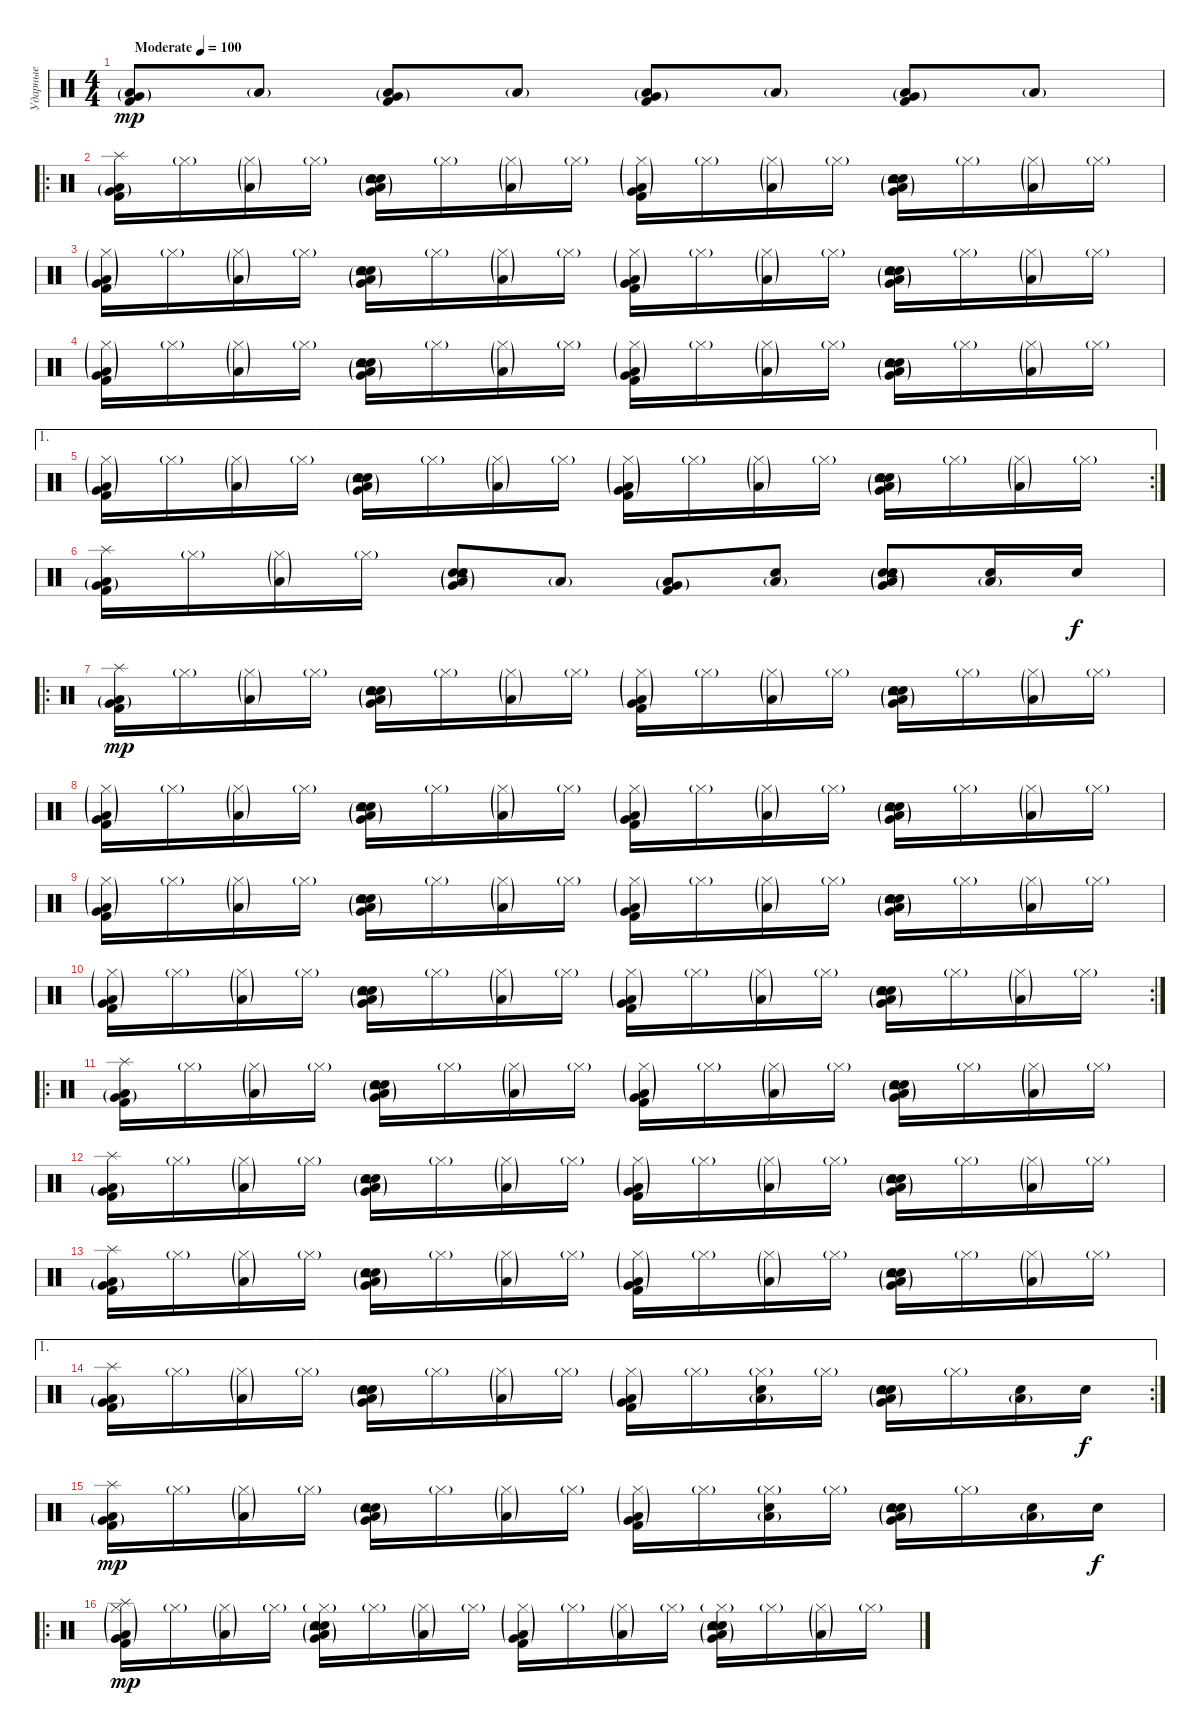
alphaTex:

\track ("Ударные" "Ударные") {instrument percussion}
\staff {score}
\articulation defaults
\ts (4 4)
\tempo (100 "Moderate")
\clef neutral
\ks c
("Kick (hit) 2" "Very Low Tom (hit)"{g} "Low Floor Tom (hit)"{g}).8{dy mp} "Low Floor Tom (hit)"{g}.8 ("Kick (hit) 2" "Very Low Tom (hit)"{g} "Low Floor Tom (hit)"{g}).8 "Low Floor Tom (hit)"{g}.8 ("Kick (hit) 2" "Very Low Tom (hit)"{g} "Low Floor Tom (hit)"{g}).8 "Low Floor Tom (hit)"{g}.8 ("Kick (hit) 2" "Very Low Tom (hit)"{g} "Low Floor Tom (hit)"{g}).8 "Low Floor Tom (hit)"{g}.8 |
\ro
("Splash (hit)" "Kick (hit) 2" "Very Low Tom (hit)"{g} "Low Floor Tom (hit)"{g}).16 "Hi-Hat (closed)"{g}.16 ("Low Floor Tom (hit)"{g} "Hi-Hat (closed)"{g}).16 "Hi-Hat (closed)"{g}.16 ("Hand Clap (hit)" "Snare (hit) 2" "Very Low Tom (hit)"{g} "Tambourine (hit)"{g} "Low Floor Tom (hit)"{g}).16 "Hi-Hat (closed)"{g}.16 ("Low Floor Tom (hit)"{g} "Hi-Hat (closed)"{g}).16 "Hi-Hat (closed)"{g}.16 ("Kick (hit) 2" "Very Low Tom (hit)"{g} "Hi-Hat (closed)"{g} "Low Floor Tom (hit)"{g}).16 "Hi-Hat (closed)"{g}.16 ("Low Floor Tom (hit)"{g} "Hi-Hat (closed)"{g}).16 "Hi-Hat (closed)"{g}.16 ("Hand Clap (hit)" "Snare (hit) 2" "Very Low Tom (hit)"{g} "Tambourine (hit)"{g} "Low Floor Tom (hit)"{g}).16 "Hi-Hat (closed)"{g}.16 ("Low Floor Tom (hit)"{g} "Hi-Hat (closed)"{g}).16 "Hi-Hat (closed)"{g}.16 |
("Kick (hit) 2" "Very Low Tom (hit)"{g} "Hi-Hat (closed)"{g} "Low Floor Tom (hit)"{g}).16 "Hi-Hat (closed)"{g}.16 ("Low Floor Tom (hit)"{g} "Hi-Hat (closed)"{g}).16 "Hi-Hat (closed)"{g}.16 ("Hand Clap (hit)" "Snare (hit) 2" "Very Low Tom (hit)"{g} "Tambourine (hit)"{g} "Low Floor Tom (hit)"{g}).16 "Hi-Hat (closed)"{g}.16 ("Low Floor Tom (hit)"{g} "Hi-Hat (closed)"{g}).16 "Hi-Hat (closed)"{g}.16 ("Kick (hit) 2" "Very Low Tom (hit)"{g} "Hi-Hat (closed)"{g} "Low Floor Tom (hit)"{g}).16 "Hi-Hat (closed)"{g}.16 ("Low Floor Tom (hit)"{g} "Hi-Hat (closed)"{g}).16 "Hi-Hat (closed)"{g}.16 ("Hand Clap (hit)" "Snare (hit) 2" "Very Low Tom (hit)"{g} "Tambourine (hit)"{g} "Low Floor Tom (hit)"{g}).16 "Hi-Hat (closed)"{g}.16 ("Low Floor Tom (hit)"{g} "Hi-Hat (closed)"{g}).16 "Hi-Hat (closed)"{g}.16 |
("Kick (hit) 2" "Very Low Tom (hit)"{g} "Hi-Hat (closed)"{g} "Low Floor Tom (hit)"{g}).16 "Hi-Hat (closed)"{g}.16 ("Low Floor Tom (hit)"{g} "Hi-Hat (closed)"{g}).16 "Hi-Hat (closed)"{g}.16 ("Hand Clap (hit)" "Snare (hit) 2" "Very Low Tom (hit)"{g} "Tambourine (hit)"{g} "Low Floor Tom (hit)"{g}).16 "Hi-Hat (closed)"{g}.16 ("Low Floor Tom (hit)"{g} "Hi-Hat (closed)"{g}).16 "Hi-Hat (closed)"{g}.16 ("Kick (hit) 2" "Very Low Tom (hit)"{g} "Hi-Hat (closed)"{g} "Low Floor Tom (hit)"{g}).16 "Hi-Hat (closed)"{g}.16 ("Low Floor Tom (hit)"{g} "Hi-Hat (closed)"{g}).16 "Hi-Hat (closed)"{g}.16 ("Hand Clap (hit)" "Snare (hit) 2" "Very Low Tom (hit)"{g} "Tambourine (hit)"{g} "Low Floor Tom (hit)"{g}).16 "Hi-Hat (closed)"{g}.16 ("Low Floor Tom (hit)"{g} "Hi-Hat (closed)"{g}).16 "Hi-Hat (closed)"{g}.16 |
\ae 1
\rc 2
("Kick (hit) 2" "Very Low Tom (hit)"{g} "Hi-Hat (closed)"{g} "Low Floor Tom (hit)"{g}).16 "Hi-Hat (closed)"{g}.16 ("Low Floor Tom (hit)"{g} "Hi-Hat (closed)"{g}).16 "Hi-Hat (closed)"{g}.16 ("Hand Clap (hit)" "Snare (hit) 2" "Very Low Tom (hit)"{g} "Tambourine (hit)"{g} "Low Floor Tom (hit)"{g}).16 "Hi-Hat (closed)"{g}.16 ("Low Floor Tom (hit)"{g} "Hi-Hat (closed)"{g}).16 "Hi-Hat (closed)"{g}.16 ("Kick (hit) 2" "Very Low Tom (hit)"{g} "Hi-Hat (closed)"{g} "Low Floor Tom (hit)"{g}).16 "Hi-Hat (closed)"{g}.16 ("Low Floor Tom (hit)"{g} "Hi-Hat (closed)"{g}).16 "Hi-Hat (closed)"{g}.16 ("Hand Clap (hit)" "Snare (hit) 2" "Very Low Tom (hit)"{g} "Tambourine (hit)"{g} "Low Floor Tom (hit)"{g}).16 "Hi-Hat (closed)"{g}.16 ("Low Floor Tom (hit)"{g} "Hi-Hat (closed)"{g}).16 "Hi-Hat (closed)"{g}.16 |
("Splash (hit)" "Kick (hit) 2" "Very Low Tom (hit)"{g} "Low Floor Tom (hit)"{g}).16 "Hi-Hat (closed)"{g}.16 ("Low Floor Tom (hit)"{g} "Hi-Hat (closed)"{g}).16 "Hi-Hat (closed)"{g}.16 ("Hand Clap (hit)" "Snare (hit) 2" "Very Low Tom (hit)"{g} "Tambourine (hit)"{g} "Low Floor Tom (hit)"{g}).8 "Low Floor Tom (hit)"{g}.8 ("Kick (hit) 2" "Very Low Tom (hit)"{g} "Low Floor Tom (hit)"{g}).8 ("Hand Clap (hit)" "Low Floor Tom (hit)"{g}).8 ("Hand Clap (hit)" "Snare (hit) 2" "Very Low Tom (hit)"{g} "Tambourine (hit)"{g} "Low Floor Tom (hit)"{g}).8 ("Low Floor Tom (hit)"{g} "Snare (hit) 2").16 "Snare (hit) 2".16{dy f} |
\ro
("Splash (hit)" "Kick (hit) 2" "Very Low Tom (hit)"{g} "Low Floor Tom (hit)"{g}).16{dy mp} "Hi-Hat (closed)"{g}.16 ("Low Floor Tom (hit)"{g} "Hi-Hat (closed)"{g}).16 "Hi-Hat (closed)"{g}.16 ("Hand Clap (hit)" "Snare (hit) 2" "Very Low Tom (hit)"{g} "Tambourine (hit)"{g} "Low Floor Tom (hit)"{g}).16 "Hi-Hat (closed)"{g}.16 ("Low Floor Tom (hit)"{g} "Hi-Hat (closed)"{g}).16 "Hi-Hat (closed)"{g}.16 ("Kick (hit) 2" "Very Low Tom (hit)"{g} "Hi-Hat (closed)"{g} "Low Floor Tom (hit)"{g}).16 "Hi-Hat (closed)"{g}.16 ("Low Floor Tom (hit)"{g} "Hi-Hat (closed)"{g}).16 "Hi-Hat (closed)"{g}.16 ("Hand Clap (hit)" "Snare (hit) 2" "Very Low Tom (hit)"{g} "Tambourine (hit)"{g} "Low Floor Tom (hit)"{g}).16 "Hi-Hat (closed)"{g}.16 ("Low Floor Tom (hit)"{g} "Hi-Hat (closed)"{g}).16 "Hi-Hat (closed)"{g}.16 |
("Kick (hit) 2" "Very Low Tom (hit)"{g} "Hi-Hat (closed)"{g} "Low Floor Tom (hit)"{g}).16 "Hi-Hat (closed)"{g}.16 ("Low Floor Tom (hit)"{g} "Hi-Hat (closed)"{g}).16 "Hi-Hat (closed)"{g}.16 ("Hand Clap (hit)" "Snare (hit) 2" "Very Low Tom (hit)"{g} "Tambourine (hit)"{g} "Low Floor Tom (hit)"{g}).16 "Hi-Hat (closed)"{g}.16 ("Low Floor Tom (hit)"{g} "Hi-Hat (closed)"{g}).16 "Hi-Hat (closed)"{g}.16 ("Kick (hit) 2" "Very Low Tom (hit)"{g} "Hi-Hat (closed)"{g} "Low Floor Tom (hit)"{g}).16 "Hi-Hat (closed)"{g}.16 ("Low Floor Tom (hit)"{g} "Hi-Hat (closed)"{g}).16 "Hi-Hat (closed)"{g}.16 ("Hand Clap (hit)" "Snare (hit) 2" "Very Low Tom (hit)"{g} "Tambourine (hit)"{g} "Low Floor Tom (hit)"{g}).16 "Hi-Hat (closed)"{g}.16 ("Low Floor Tom (hit)"{g} "Hi-Hat (closed)"{g}).16 "Hi-Hat (closed)"{g}.16 |
("Kick (hit) 2" "Very Low Tom (hit)"{g} "Hi-Hat (closed)"{g} "Low Floor Tom (hit)"{g}).16 "Hi-Hat (closed)"{g}.16 ("Low Floor Tom (hit)"{g} "Hi-Hat (closed)"{g}).16 "Hi-Hat (closed)"{g}.16 ("Hand Clap (hit)" "Snare (hit) 2" "Very Low Tom (hit)"{g} "Tambourine (hit)"{g} "Low Floor Tom (hit)"{g}).16 "Hi-Hat (closed)"{g}.16 ("Low Floor Tom (hit)"{g} "Hi-Hat (closed)"{g}).16 "Hi-Hat (closed)"{g}.16 ("Kick (hit) 2" "Very Low Tom (hit)"{g} "Hi-Hat (closed)"{g} "Low Floor Tom (hit)"{g}).16 "Hi-Hat (closed)"{g}.16 ("Low Floor Tom (hit)"{g} "Hi-Hat (closed)"{g}).16 "Hi-Hat (closed)"{g}.16 ("Hand Clap (hit)" "Snare (hit) 2" "Very Low Tom (hit)"{g} "Tambourine (hit)"{g} "Low Floor Tom (hit)"{g}).16 "Hi-Hat (closed)"{g}.16 ("Low Floor Tom (hit)"{g} "Hi-Hat (closed)"{g}).16 "Hi-Hat (closed)"{g}.16 |
\rc 2
("Kick (hit) 2" "Very Low Tom (hit)"{g} "Hi-Hat (closed)"{g} "Low Floor Tom (hit)"{g}).16 "Hi-Hat (closed)"{g}.16 ("Low Floor Tom (hit)"{g} "Hi-Hat (closed)"{g}).16 "Hi-Hat (closed)"{g}.16 ("Hand Clap (hit)" "Snare (hit) 2" "Very Low Tom (hit)"{g} "Tambourine (hit)"{g} "Low Floor Tom (hit)"{g}).16 "Hi-Hat (closed)"{g}.16 ("Low Floor Tom (hit)"{g} "Hi-Hat (closed)"{g}).16 "Hi-Hat (closed)"{g}.16 ("Kick (hit) 2" "Very Low Tom (hit)"{g} "Hi-Hat (closed)"{g} "Low Floor Tom (hit)"{g}).16 "Hi-Hat (closed)"{g}.16 ("Low Floor Tom (hit)"{g} "Hi-Hat (closed)"{g}).16 "Hi-Hat (closed)"{g}.16 ("Hand Clap (hit)" "Snare (hit) 2" "Very Low Tom (hit)"{g} "Tambourine (hit)"{g} "Low Floor Tom (hit)"{g}).16 "Hi-Hat (closed)"{g}.16 ("Low Floor Tom (hit)"{g} "Hi-Hat (closed)"{g}).16 "Hi-Hat (closed)"{g}.16 |
\ro
("Splash (hit)" "Kick (hit) 2" "Very Low Tom (hit)"{g} "Low Floor Tom (hit)"{g}).16 "Hi-Hat (closed)"{g}.16 ("Low Floor Tom (hit)"{g} "Hi-Hat (closed)"{g}).16 "Hi-Hat (closed)"{g}.16 ("Hand Clap (hit)" "Snare (hit) 2" "Very Low Tom (hit)"{g} "Tambourine (hit)"{g} "Low Floor Tom (hit)"{g}).16 "Hi-Hat (closed)"{g}.16 ("Low Floor Tom (hit)"{g} "Hi-Hat (closed)"{g}).16 "Hi-Hat (closed)"{g}.16 ("Kick (hit) 2" "Very Low Tom (hit)"{g} "Hi-Hat (closed)"{g} "Low Floor Tom (hit)"{g}).16 "Hi-Hat (closed)"{g}.16 ("Low Floor Tom (hit)"{g} "Hi-Hat (closed)"{g}).16 "Hi-Hat (closed)"{g}.16 ("Hand Clap (hit)" "Snare (hit) 2" "Very Low Tom (hit)"{g} "Tambourine (hit)"{g} "Low Floor Tom (hit)"{g}).16 "Hi-Hat (closed)"{g}.16 ("Low Floor Tom (hit)"{g} "Hi-Hat (closed)"{g}).16 "Hi-Hat (closed)"{g}.16 |
("Splash (hit)" "Kick (hit) 2" "Very Low Tom (hit)"{g} "Low Floor Tom (hit)"{g}).16 "Hi-Hat (closed)"{g}.16 ("Low Floor Tom (hit)"{g} "Hi-Hat (closed)"{g}).16 "Hi-Hat (closed)"{g}.16 ("Hand Clap (hit)" "Snare (hit) 2" "Very Low Tom (hit)"{g} "Tambourine (hit)"{g} "Low Floor Tom (hit)"{g}).16 "Hi-Hat (closed)"{g}.16 ("Low Floor Tom (hit)"{g} "Hi-Hat (closed)"{g}).16 "Hi-Hat (closed)"{g}.16 ("Kick (hit) 2" "Very Low Tom (hit)"{g} "Hi-Hat (closed)"{g} "Low Floor Tom (hit)"{g}).16 "Hi-Hat (closed)"{g}.16 ("Low Floor Tom (hit)"{g} "Hi-Hat (closed)"{g}).16 "Hi-Hat (closed)"{g}.16 ("Hand Clap (hit)" "Snare (hit) 2" "Very Low Tom (hit)"{g} "Tambourine (hit)"{g} "Low Floor Tom (hit)"{g}).16 "Hi-Hat (closed)"{g}.16 ("Low Floor Tom (hit)"{g} "Hi-Hat (closed)"{g}).16 "Hi-Hat (closed)"{g}.16 |
("Splash (hit)" "Kick (hit) 2" "Very Low Tom (hit)"{g} "Low Floor Tom (hit)"{g}).16 "Hi-Hat (closed)"{g}.16 ("Low Floor Tom (hit)"{g} "Hi-Hat (closed)"{g}).16 "Hi-Hat (closed)"{g}.16 ("Hand Clap (hit)" "Snare (hit) 2" "Very Low Tom (hit)"{g} "Tambourine (hit)"{g} "Low Floor Tom (hit)"{g}).16 "Hi-Hat (closed)"{g}.16 ("Low Floor Tom (hit)"{g} "Hi-Hat (closed)"{g}).16 "Hi-Hat (closed)"{g}.16 ("Kick (hit) 2" "Very Low Tom (hit)"{g} "Hi-Hat (closed)"{g} "Low Floor Tom (hit)"{g}).16 "Hi-Hat (closed)"{g}.16 ("Low Floor Tom (hit)"{g} "Hi-Hat (closed)"{g}).16 "Hi-Hat (closed)"{g}.16 ("Hand Clap (hit)" "Snare (hit) 2" "Very Low Tom (hit)"{g} "Tambourine (hit)"{g} "Low Floor Tom (hit)"{g}).16 "Hi-Hat (closed)"{g}.16 ("Low Floor Tom (hit)"{g} "Hi-Hat (closed)"{g}).16 "Hi-Hat (closed)"{g}.16 |
\ae 1
\rc 2
("Splash (hit)" "Kick (hit) 2" "Very Low Tom (hit)"{g} "Low Floor Tom (hit)"{g}).16 "Hi-Hat (closed)"{g}.16 ("Low Floor Tom (hit)"{g} "Hi-Hat (closed)"{g}).16 "Hi-Hat (closed)"{g}.16 ("Hand Clap (hit)" "Snare (hit) 2" "Very Low Tom (hit)"{g} "Tambourine (hit)"{g} "Low Floor Tom (hit)"{g}).16 "Hi-Hat (closed)"{g}.16 ("Low Floor Tom (hit)"{g} "Hi-Hat (closed)"{g}).16 "Hi-Hat (closed)"{g}.16 ("Kick (hit) 2" "Very Low Tom (hit)"{g} "Hi-Hat (closed)"{g} "Low Floor Tom (hit)"{g}).16 "Hi-Hat (closed)"{g}.16 ("Hand Clap (hit)" "Low Floor Tom (hit)"{g} "Hi-Hat (closed)"{g}).16 "Hi-Hat (closed)"{g}.16 ("Hand Clap (hit)" "Snare (hit) 2" "Very Low Tom (hit)"{g} "Tambourine (hit)"{g} "Low Floor Tom (hit)"{g}).16 "Hi-Hat (closed)"{g}.16 ("Snare (hit) 2" "Low Floor Tom (hit)"{g}).16 "Snare (hit) 2".16{dy f} |
("Splash (hit)" "Kick (hit) 2" "Very Low Tom (hit)"{g} "Low Floor Tom (hit)"{g}).16{dy mp} "Hi-Hat (closed)"{g}.16 ("Low Floor Tom (hit)"{g} "Hi-Hat (closed)"{g}).16 "Hi-Hat (closed)"{g}.16 ("Hand Clap (hit)" "Snare (hit) 2" "Very Low Tom (hit)"{g} "Tambourine (hit)"{g} "Low Floor Tom (hit)"{g}).16 "Hi-Hat (closed)"{g}.16 ("Low Floor Tom (hit)"{g} "Hi-Hat (closed)"{g}).16 "Hi-Hat (closed)"{g}.16 ("Kick (hit) 2" "Very Low Tom (hit)"{g} "Hi-Hat (closed)"{g} "Low Floor Tom (hit)"{g}).16 "Hi-Hat (closed)"{g}.16 ("Hand Clap (hit)" "Low Floor Tom (hit)"{g} "Hi-Hat (closed)"{g}).16 "Hi-Hat (closed)"{g}.16 ("Hand Clap (hit)" "Snare (hit) 2" "Very Low Tom (hit)"{g} "Tambourine (hit)"{g} "Low Floor Tom (hit)"{g}).16 "Hi-Hat (closed)"{g}.16 ("Snare (hit) 2" "Low Floor Tom (hit)"{g}).16 "Snare (hit) 2".16{dy f} |
\ro
("Splash (hit)" "Kick (hit) 2" "Very Low Tom (hit)"{g} "Hi-Hat (closed)"{g} "Low Floor Tom (hit)"{g}).16{dy mp} "Hi-Hat (closed)"{g}.16 ("Low Floor Tom (hit)"{g} "Hi-Hat (closed)"{g}).16 "Hi-Hat (closed)"{g}.16 ("Hand Clap (hit)" "Snare (hit) 2" "Hi-Hat (closed)"{g} "Very Low Tom (hit)"{g} "Tambourine (hit)"{g} "Low Floor Tom (hit)"{g}).16 "Hi-Hat (closed)"{g}.16 ("Low Floor Tom (hit)"{g} "Hi-Hat (closed)"{g}).16 "Hi-Hat (closed)"{g}.16 ("Kick (hit) 2" "Very Low Tom (hit)"{g} "Hi-Hat (closed)"{g} "Low Floor Tom (hit)"{g}).16 "Hi-Hat (closed)"{g}.16 ("Low Floor Tom (hit)"{g} "Hi-Hat (closed)"{g}).16 "Hi-Hat (closed)"{g}.16 ("Hand Clap (hit)" "Snare (hit) 2" "Hi-Hat (closed)"{g} "Very Low Tom (hit)"{g} "Tambourine (hit)"{g} "Low Floor Tom (hit)"{g}).16 "Hi-Hat (closed)"{g}.16 ("Low Floor Tom (hit)"{g} "Hi-Hat (closed)"{g}).16 "Hi-Hat (closed)"{g}.16
